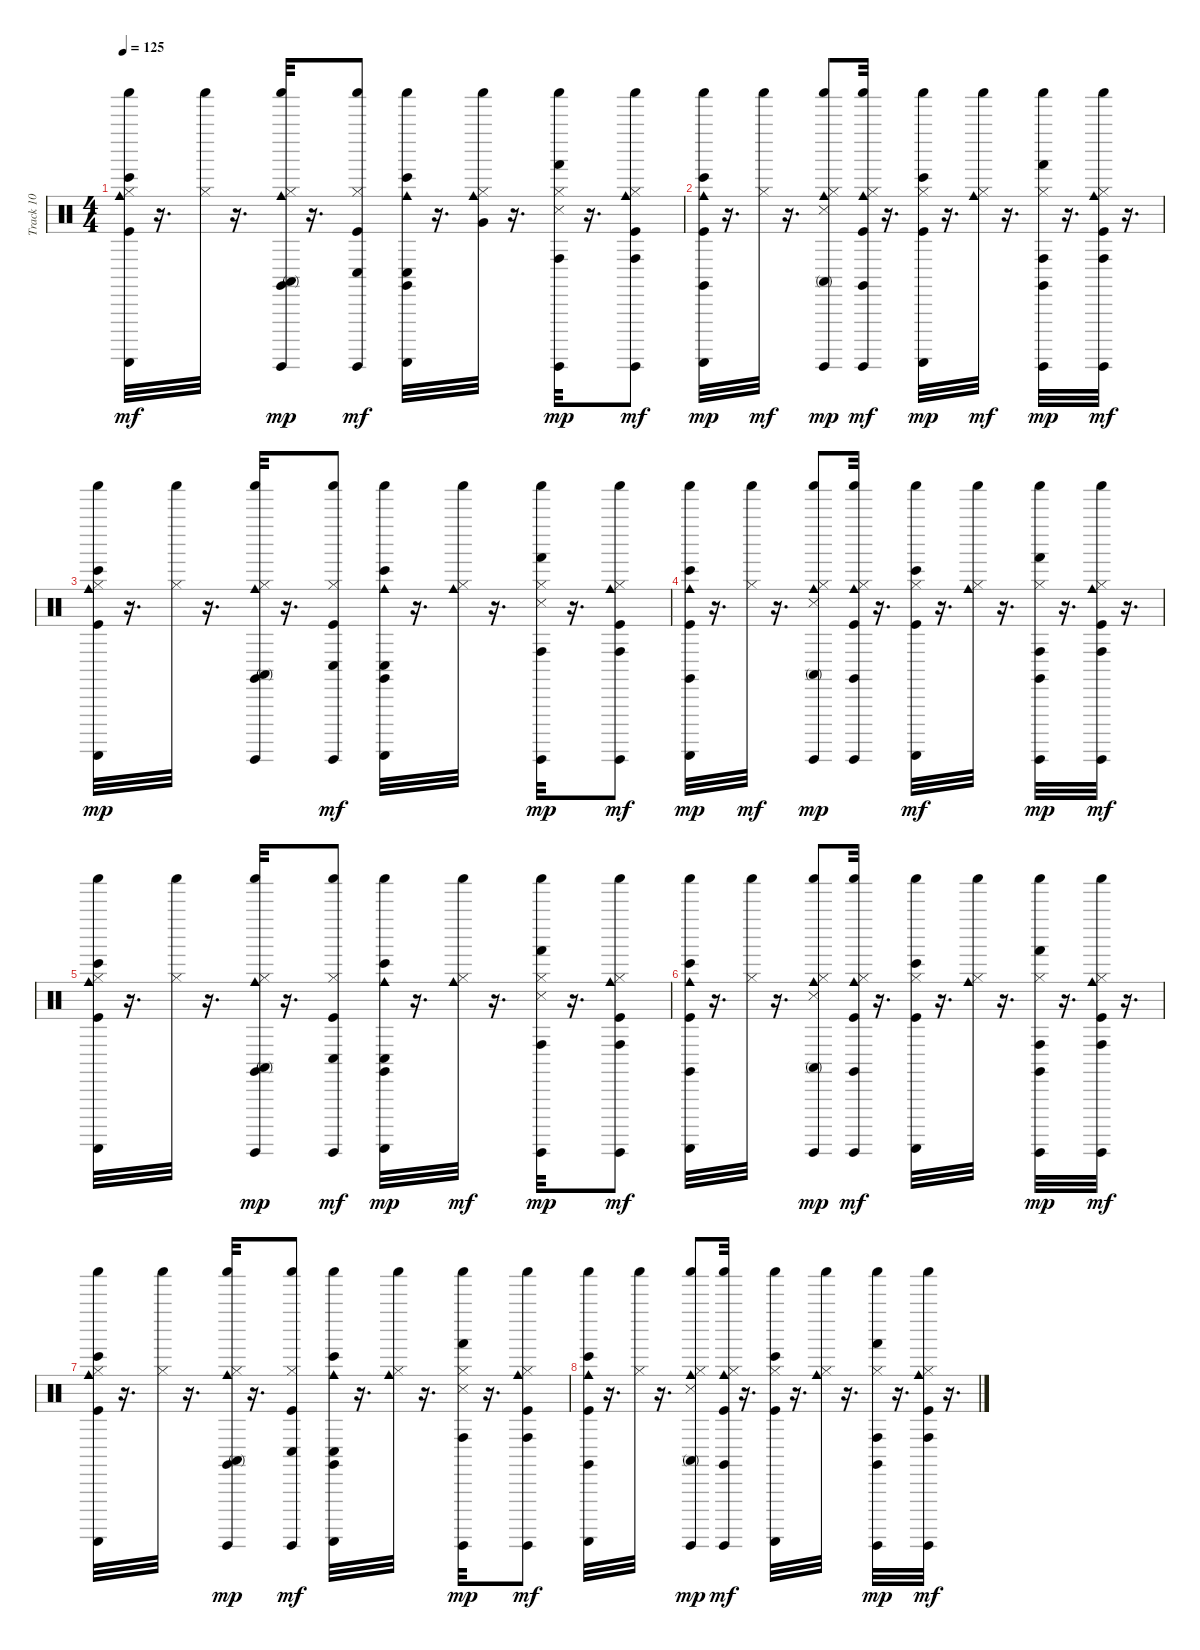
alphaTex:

\track ("Track 10" "Track 10") {instrument percussion}
\staff {score}
\articulation defaults
\ts (4 4)
\tempo 125
\clef neutral
\ks c
("Shaker (hit)" "Bongo High (hit)" "Cowbell medium (hit)" "Guiro (scrap-return)" "Kick (hit)" "Hi-Hat (closed)").32{dy mf} r.16{d} ("Shaker (hit)" "Hi-Hat (closed)").32 r.16{d} ("Shaker (hit)" "Claves (hit)" "Conga high (mute)" "Cowbell medium (hit)" "Guiro (hit)" "Hi-Hat (closed)").32{dy mp} r.16{d} ("Shaker (hit)" "Conga low (hit)" "Guiro (hit)" "Kick (hit)" "Hi-Hat (closed)").8{dy mf} ("Shaker (hit)" "Claves (hit)" "Conga low (hit)" "Bongo High (hit)" "Cowbell medium (hit)" "Guiro (scrap-return)").32 r.16{d} ("Shaker (hit)" "Cowbell medium (hit)" "Hi-Hat (closed)" "Very Low Tom (hit)").32 r.16{d} ("Shaker (hit)" "Conga high (hit)" "Hand (hit)" "Guiro (hit)" "Hi-Hat (closed)" "Snare (side stick) 3").32{dy mp} r.16{d} ("Shaker (hit)" "Conga high (hit)" "Cowbell medium (hit)" "Guiro (hit)" "Kick (hit)" "Hi-Hat (closed)").8{dy mf} |
("Shaker (hit)" "Claves (hit)" "Bongo High (hit)" "Cowbell medium (hit)" "Guiro (scrap-return)" "Kick (hit)").32{dy mp} r.16{d} ("Shaker (hit)" "Hi-Hat (closed)").32{dy mf} r.16{d} ("Shaker (hit)" "Conga high (mute)" "Cowbell medium (hit)" "Guiro (hit)" "Hi-Hat (closed)" "Snare (side stick) 3").8{dy mp} ("Shaker (hit)" "Claves (hit)" "Cowbell medium (hit)" "Guiro (hit)" "Kick (hit)" "Hi-Hat (closed)").32{dy mf} r.16{d} ("Shaker (hit)" "Bongo High (hit)" "Guiro (scrap-return)" "Kick (hit)" "Hi-Hat (closed)").32{dy mp} r.16{d} ("Shaker (hit)" "Cowbell medium (hit)" "Hi-Hat (closed)").32{dy mf} r.16{d} ("Shaker (hit)" "Claves (hit)" "Conga high (hit)" "Hand (hit)" "Guiro (hit)" "Hi-Hat (closed)").32{dy mp} r.16{d} ("Shaker (hit)" "Conga high (hit)" "Cowbell medium (hit)" "Guiro (hit)" "Kick (hit)" "Hi-Hat (closed)").32{dy mf} r.16{d} |
("Shaker (hit)" "Bongo High (hit)" "Cowbell medium (hit)" "Guiro (scrap-return)" "Kick (hit)" "Hi-Hat (closed)").32{dy mp} r.16{d} ("Shaker (hit)" "Hi-Hat (closed)").32 r.16{d} ("Shaker (hit)" "Claves (hit)" "Conga high (mute)" "Cowbell medium (hit)" "Guiro (hit)" "Hi-Hat (closed)").32 r.16{d} ("Shaker (hit)" "Conga low (hit)" "Guiro (hit)" "Kick (hit)" "Hi-Hat (closed)").8{dy mf} ("Shaker (hit)" "Claves (hit)" "Conga low (hit)" "Bongo High (hit)" "Cowbell medium (hit)" "Guiro (scrap-return)").32 r.16{d} ("Shaker (hit)" "Cowbell medium (hit)" "Hi-Hat (closed)").32 r.16{d} ("Shaker (hit)" "Conga high (hit)" "Hand (hit)" "Guiro (hit)" "Hi-Hat (closed)" "Snare (side stick) 3").32{dy mp} r.16{d} ("Shaker (hit)" "Conga high (hit)" "Cowbell medium (hit)" "Guiro (hit)" "Kick (hit)" "Hi-Hat (closed)").8{dy mf} |
("Shaker (hit)" "Claves (hit)" "Bongo High (hit)" "Cowbell medium (hit)" "Guiro (scrap-return)" "Kick (hit)").32{dy mp} r.16{d} ("Shaker (hit)" "Hi-Hat (closed)").32{dy mf} r.16{d} ("Shaker (hit)" "Conga high (mute)" "Cowbell medium (hit)" "Guiro (hit)" "Hi-Hat (closed)" "Snare (side stick) 3").8{dy mp} ("Shaker (hit)" "Claves (hit)" "Cowbell medium (hit)" "Guiro (hit)" "Kick (hit)" "Hi-Hat (closed)").32 r.16{d} ("Shaker (hit)" "Bongo High (hit)" "Guiro (scrap-return)" "Kick (hit)" "Hi-Hat (closed)").32{dy mf} r.16{d} ("Shaker (hit)" "Cowbell medium (hit)" "Hi-Hat (closed)").32 r.16{d} ("Shaker (hit)" "Claves (hit)" "Conga high (hit)" "Hand (hit)" "Guiro (hit)" "Hi-Hat (closed)").32{dy mp} r.16{d} ("Shaker (hit)" "Conga high (hit)" "Cowbell medium (hit)" "Guiro (hit)" "Kick (hit)" "Hi-Hat (closed)").32{dy mf} r.16{d} |
("Shaker (hit)" "Bongo High (hit)" "Cowbell medium (hit)" "Guiro (scrap-return)" "Kick (hit)" "Hi-Hat (closed)").32 r.16{d} ("Shaker (hit)" "Hi-Hat (closed)").32 r.16{d} ("Shaker (hit)" "Claves (hit)" "Conga high (mute)" "Cowbell medium (hit)" "Guiro (hit)" "Hi-Hat (closed)").32{dy mp} r.16{d} ("Shaker (hit)" "Conga low (hit)" "Guiro (hit)" "Kick (hit)" "Hi-Hat (closed)").8{dy mf} ("Shaker (hit)" "Claves (hit)" "Conga low (hit)" "Bongo High (hit)" "Cowbell medium (hit)" "Guiro (scrap-return)").32{dy mp} r.16{d} ("Shaker (hit)" "Cowbell medium (hit)" "Hi-Hat (closed)").32{dy mf} r.16{d} ("Shaker (hit)" "Conga high (hit)" "Hand (hit)" "Guiro (hit)" "Hi-Hat (closed)" "Snare (side stick) 3").32{dy mp} r.16{d} ("Shaker (hit)" "Conga high (hit)" "Cowbell medium (hit)" "Guiro (hit)" "Kick (hit)" "Hi-Hat (closed)").8{dy mf} |
("Shaker (hit)" "Claves (hit)" "Bongo High (hit)" "Cowbell medium (hit)" "Guiro (scrap-return)" "Kick (hit)").32 r.16{d} ("Shaker (hit)" "Hi-Hat (closed)").32 r.16{d} ("Shaker (hit)" "Conga high (mute)" "Cowbell medium (hit)" "Guiro (hit)" "Hi-Hat (closed)" "Snare (side stick) 3").8{dy mp} ("Shaker (hit)" "Claves (hit)" "Cowbell medium (hit)" "Guiro (hit)" "Kick (hit)" "Hi-Hat (closed)").32{dy mf} r.16{d} ("Shaker (hit)" "Bongo High (hit)" "Guiro (scrap-return)" "Kick (hit)" "Hi-Hat (closed)").32 r.16{d} ("Shaker (hit)" "Cowbell medium (hit)" "Hi-Hat (closed)").32 r.16{d} ("Shaker (hit)" "Claves (hit)" "Conga high (hit)" "Hand (hit)" "Guiro (hit)" "Hi-Hat (closed)").32{dy mp} r.16{d} ("Shaker (hit)" "Conga high (hit)" "Cowbell medium (hit)" "Guiro (hit)" "Kick (hit)" "Hi-Hat (closed)").32{dy mf} r.16{d} |
("Shaker (hit)" "Bongo High (hit)" "Cowbell medium (hit)" "Guiro (scrap-return)" "Kick (hit)" "Hi-Hat (closed)").32 r.16{d} ("Shaker (hit)" "Hi-Hat (closed)").32 r.16{d} ("Shaker (hit)" "Claves (hit)" "Conga high (mute)" "Cowbell medium (hit)" "Guiro (hit)" "Hi-Hat (closed)").32{dy mp} r.16{d} ("Shaker (hit)" "Conga low (hit)" "Guiro (hit)" "Kick (hit)" "Hi-Hat (closed)").8{dy mf} ("Shaker (hit)" "Claves (hit)" "Conga low (hit)" "Bongo High (hit)" "Cowbell medium (hit)" "Guiro (scrap-return)").32 r.16{d} ("Shaker (hit)" "Cowbell medium (hit)" "Hi-Hat (closed)").32 r.16{d} ("Shaker (hit)" "Conga high (hit)" "Hand (hit)" "Guiro (hit)" "Hi-Hat (closed)" "Snare (side stick) 3").32{dy mp} r.16{d} ("Shaker (hit)" "Conga high (hit)" "Cowbell medium (hit)" "Guiro (hit)" "Kick (hit)" "Hi-Hat (closed)").8{dy mf} |
("Shaker (hit)" "Claves (hit)" "Bongo High (hit)" "Cowbell medium (hit)" "Guiro (scrap-return)" "Kick (hit)").32 r.16{d} ("Shaker (hit)" "Hi-Hat (closed)").32 r.16{d} ("Shaker (hit)" "Conga high (mute)" "Cowbell medium (hit)" "Guiro (hit)" "Hi-Hat (closed)" "Snare (side stick) 3").8{dy mp} ("Shaker (hit)" "Claves (hit)" "Cowbell medium (hit)" "Guiro (hit)" "Kick (hit)" "Hi-Hat (closed)").32{dy mf} r.16{d} ("Shaker (hit)" "Bongo High (hit)" "Guiro (scrap-return)" "Kick (hit)" "Hi-Hat (closed)").32 r.16{d} ("Shaker (hit)" "Cowbell medium (hit)" "Hi-Hat (closed)").32 r.16{d} ("Shaker (hit)" "Claves (hit)" "Conga high (hit)" "Hand (hit)" "Guiro (hit)" "Hi-Hat (closed)").32{dy mp} r.16{d} ("Shaker (hit)" "Conga high (hit)" "Cowbell medium (hit)" "Guiro (hit)" "Kick (hit)" "Hi-Hat (closed)").32{dy mf} r.16{d}
